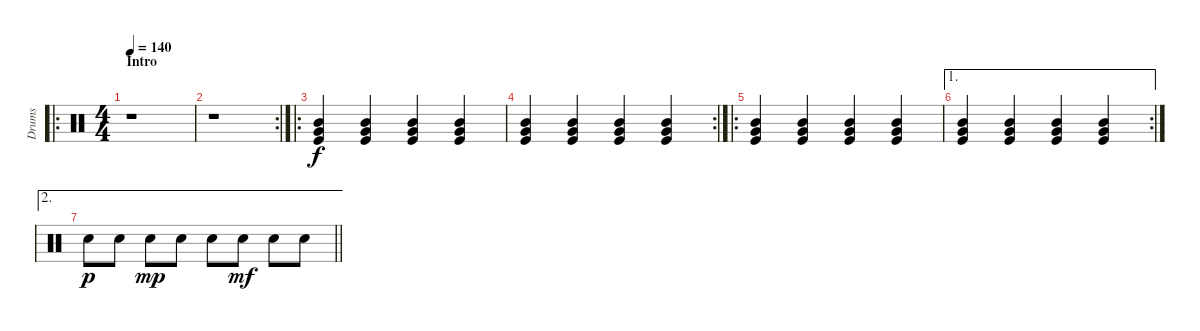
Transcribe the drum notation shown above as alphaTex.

\track ("Drums" "Drums") {instrument percussion}
\staff {score}
\articulation defaults
\ro
\ts (4 4)
\section ("" "Intro")
\tempo 140
\clef neutral
\ks c
r.1{dy f} |
\rc 2
r.1 |
\ro
("Mid Tom (hit)" "Very Low Tom (hit)" "Kick (hit)").4 ("Mid Tom (hit)" "Very Low Tom (hit)" "Kick (hit)").4 ("Mid Tom (hit)" "Very Low Tom (hit)" "Kick (hit)").4 ("Mid Tom (hit)" "Very Low Tom (hit)" "Kick (hit)").4 |
\rc 2
("Mid Tom (hit)" "Very Low Tom (hit)" "Kick (hit)").4 ("Mid Tom (hit)" "Very Low Tom (hit)" "Kick (hit)").4 ("Mid Tom (hit)" "Very Low Tom (hit)" "Kick (hit)").4 ("Mid Tom (hit)" "Very Low Tom (hit)" "Kick (hit)").4 |
\ro
("Mid Tom (hit)" "Very Low Tom (hit)" "Kick (hit)").4 ("Mid Tom (hit)" "Very Low Tom (hit)" "Kick (hit)").4 ("Mid Tom (hit)" "Very Low Tom (hit)" "Kick (hit)").4 ("Mid Tom (hit)" "Very Low Tom (hit)" "Kick (hit)").4 |
\ae 1
\rc 2
("Mid Tom (hit)" "Very Low Tom (hit)" "Kick (hit)").4 ("Mid Tom (hit)" "Very Low Tom (hit)" "Kick (hit)").4 ("Mid Tom (hit)" "Very Low Tom (hit)" "Kick (hit)").4 ("Mid Tom (hit)" "Very Low Tom (hit)" "Kick (hit)").4 |
\ae 2
\barLineRight lightlight "Snare (hit) 2".8{dy p} "Snare (hit) 2".8 "Snare (hit) 2".8{dy mp} "Snare (hit) 2".8 "Snare (hit) 2".8 "Snare (hit) 2".8{dy mf} "Snare (hit) 2".8 "Snare (hit) 2".8
